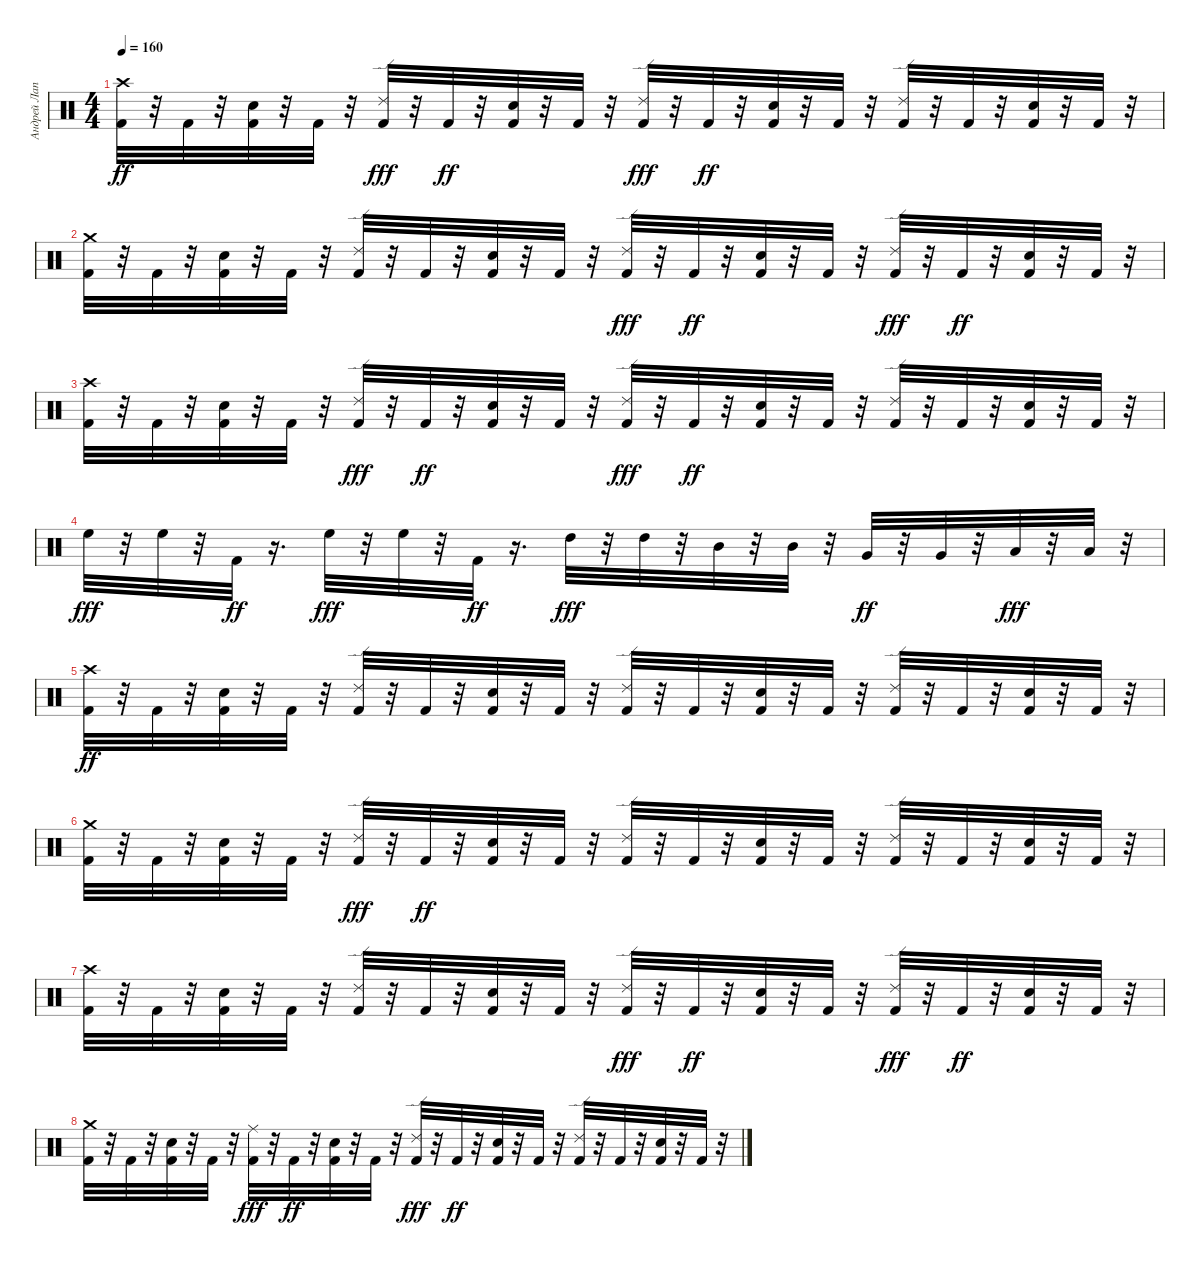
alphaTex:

\track ("Андрей Лаптев" "Андрей Лап") {instrument percussion}
\staff {score}
\articulation defaults
\ts (4 4)
\tempo 160
\clef neutral
\ks c
("Kick (hit) 2" "Crash high (hit)").32{dy ff} r.32 "Kick (hit) 2".32 r.32 ("Electric Snare (hit)" "Kick (hit) 2").32 r.32 "Kick (hit) 2".32 r.32 ("Kick (hit) 2" "Ride (edge) 2").32{dy fff} r.32 "Kick (hit) 2".32{dy ff} r.32 ("Kick (hit) 2" "Electric Snare (hit)").32 r.32 "Kick (hit) 2".32 r.32 ("Kick (hit) 2" "Ride (edge) 2").32{dy fff} r.32 "Kick (hit) 2".32{dy ff} r.32 ("Kick (hit) 2" "Electric Snare (hit)").32 r.32 "Kick (hit) 2".32 r.32 ("Ride (edge) 2" "Kick (hit) 2").32 r.32 "Kick (hit) 2".32 r.32 ("Electric Snare (hit)" "Kick (hit) 2").32 r.32 "Kick (hit) 2".32 r.32 |
("Crash medium (hit)" "Kick (hit) 2").32 r.32 "Kick (hit) 2".32 r.32 ("Electric Snare (hit)" "Kick (hit) 2").32 r.32 "Kick (hit) 2".32 r.32 ("Ride (edge) 2" "Kick (hit) 2").32 r.32 "Kick (hit) 2".32 r.32 ("Electric Snare (hit)" "Kick (hit) 2").32 r.32 "Kick (hit) 2".32 r.32 ("Kick (hit) 2" "Ride (edge) 2").32{dy fff} r.32 "Kick (hit) 2".32{dy ff} r.32 ("Kick (hit) 2" "Electric Snare (hit)").32 r.32 "Kick (hit) 2".32 r.32 ("Kick (hit) 2" "Ride (edge) 2").32{dy fff} r.32 "Kick (hit) 2".32{dy ff} r.32 ("Kick (hit) 2" "Electric Snare (hit)").32 r.32 "Kick (hit) 2".32 r.32 |
("Crash high (hit)" "Kick (hit) 2").32 r.32 "Kick (hit) 2".32 r.32 ("Electric Snare (hit)" "Kick (hit) 2").32 r.32 "Kick (hit) 2".32 r.32 ("Kick (hit) 2" "Ride (edge) 2").32{dy fff} r.32 "Kick (hit) 2".32{dy ff} r.32 ("Electric Snare (hit)" "Kick (hit) 2").32 r.32 "Kick (hit) 2".32 r.32 ("Kick (hit) 2" "Ride (edge) 2").32{dy fff} r.32 "Kick (hit) 2".32{dy ff} r.32 ("Kick (hit) 2" "Electric Snare (hit)").32 r.32 "Kick (hit) 2".32 r.32 ("Ride (edge) 2" "Kick (hit) 2").32 r.32 "Kick (hit) 2".32 r.32 ("Electric Snare (hit)" "Kick (hit) 2").32 r.32 "Kick (hit) 2".32 r.32 |
"High Floor Tom (hit)".32{dy fff} r.32 "High Floor Tom (hit)".32 r.32 "Kick (hit) 2".32{dy ff} r.16{d} "High Floor Tom (hit)".32{dy fff} r.32 "High Floor Tom (hit)".32 r.32 "Kick (hit) 2".32{dy ff} r.16{d} "High Tom (hit)".32{dy fff} r.32 "High Tom (hit)".32 r.32 "Mid Tom (hit)".32 r.32 "Mid Tom (hit)".32 r.32 "Very Low Tom (hit)".32{dy ff} r.32 "Very Low Tom (hit)".32 r.32 "Low Tom (hit)".32{dy fff} r.32 "Low Tom (hit)".32 r.32 |
("Crash high (hit)" "Kick (hit) 2").32{dy ff} r.32 "Kick (hit) 2".32 r.32 ("Kick (hit) 2" "Electric Snare (hit)").32 r.32 "Kick (hit) 2".32 r.32 ("Ride (edge) 2" "Kick (hit) 2").32 r.32 "Kick (hit) 2".32 r.32 ("Electric Snare (hit)" "Kick (hit) 2").32 r.32 "Kick (hit) 2".32 r.32 ("Ride (edge) 2" "Kick (hit) 2").32 r.32 "Kick (hit) 2".32 r.32 ("Kick (hit) 2" "Electric Snare (hit)").32 r.32 "Kick (hit) 2".32 r.32 ("Ride (edge) 2" "Kick (hit) 2").32 r.32 "Kick (hit) 2".32 r.32 ("Electric Snare (hit)" "Kick (hit) 2").32 r.32 "Kick (hit) 2".32 r.32 |
("Kick (hit) 2" "Crash medium (hit)").32 r.32 "Kick (hit) 2".32 r.32 ("Electric Snare (hit)" "Kick (hit) 2").32 r.32 "Kick (hit) 2".32 r.32 ("Kick (hit) 2" "Ride (edge) 2").32{dy fff} r.32 "Kick (hit) 2".32{dy ff} r.32 ("Kick (hit) 2" "Electric Snare (hit)").32 r.32 "Kick (hit) 2".32 r.32 ("Ride (edge) 2" "Kick (hit) 2").32 r.32 "Kick (hit) 2".32 r.32 ("Electric Snare (hit)" "Kick (hit) 2").32 r.32 "Kick (hit) 2".32 r.32 ("Ride (edge) 2" "Kick (hit) 2").32 r.32 "Kick (hit) 2".32 r.32 ("Electric Snare (hit)" "Kick (hit) 2").32 r.32 "Kick (hit) 2".32 r.32 |
("Kick (hit) 2" "Crash high (hit)").32 r.32 "Kick (hit) 2".32 r.32 ("Kick (hit) 2" "Electric Snare (hit)").32 r.32 "Kick (hit) 2".32 r.32 ("Ride (edge) 2" "Kick (hit) 2").32 r.32 "Kick (hit) 2".32 r.32 ("Electric Snare (hit)" "Kick (hit) 2").32 r.32 "Kick (hit) 2".32 r.32 ("Kick (hit) 2" "Ride (edge) 2").32{dy fff} r.32 "Kick (hit) 2".32{dy ff} r.32 ("Kick (hit) 2" "Electric Snare (hit)").32 r.32 "Kick (hit) 2".32 r.32 ("Kick (hit) 2" "Ride (edge) 2").32{dy fff} r.32 "Kick (hit) 2".32{dy ff} r.32 ("Electric Snare (hit)" "Kick (hit) 2").32 r.32 "Kick (hit) 2".32 r.32 |
("Crash medium (hit)" "Kick (hit) 2").32 r.32 "Kick (hit) 2".32 r.32 ("Kick (hit) 2" "Electric Snare (hit)").32 r.32 "Kick (hit) 2".32 r.32 ("Kick (hit) 2" "Ride (middle)").32{dy fff} r.32 "Kick (hit) 2".32{dy ff} r.32 ("Electric Snare (hit)" "Kick (hit) 2").32 r.32 "Kick (hit) 2".32 r.32 ("Kick (hit) 2" "Ride (edge) 2").32{dy fff} r.32 "Kick (hit) 2".32{dy ff} r.32 ("Electric Snare (hit)" "Kick (hit) 2").32 r.32 "Kick (hit) 2".32 r.32 ("Ride (edge) 2" "Kick (hit) 2").32 r.32 "Kick (hit) 2".32 r.32 ("Kick (hit) 2" "Electric Snare (hit)").32 r.32 "Kick (hit) 2".32 r.32
